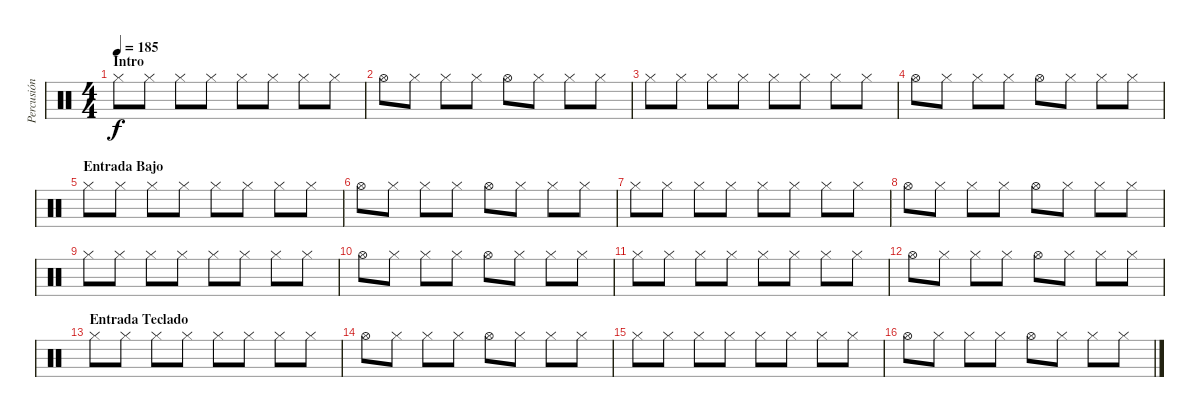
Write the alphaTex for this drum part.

\track ("Percusión" "Percusión") {instrument percussion}
\staff {score}
\articulation defaults
\ts (4 4)
\section ("" "Intro")
\tempo 185
\clef neutral
\ks c "Hi-Hat (closed)".8{dy f} "Hi-Hat (closed)".8 "Hi-Hat (closed)".8 "Hi-Hat (closed)".8 "Hi-Hat (closed)".8 "Hi-Hat (closed)".8 "Hi-Hat (closed)".8 "Hi-Hat (closed)".8
|
"Hi-Hat (open)".8 "Hi-Hat (closed)".8 "Hi-Hat (closed)".8 "Hi-Hat (closed)".8 "Hi-Hat (open)".8 "Hi-Hat (closed)".8 "Hi-Hat (closed)".8 "Hi-Hat (closed)".8 |
"Hi-Hat (closed)".8 "Hi-Hat (closed)".8 "Hi-Hat (closed)".8 "Hi-Hat (closed)".8 "Hi-Hat (closed)".8 "Hi-Hat (closed)".8 "Hi-Hat (closed)".8 "Hi-Hat (closed)".8 |
"Hi-Hat (open)".8 "Hi-Hat (closed)".8 "Hi-Hat (closed)".8 "Hi-Hat (closed)".8 "Hi-Hat (open)".8 "Hi-Hat (closed)".8 "Hi-Hat (closed)".8 "Hi-Hat (closed)".8 |
\section ("" "Entrada Bajo")
"Hi-Hat (closed)".8 "Hi-Hat (closed)".8 "Hi-Hat (closed)".8 "Hi-Hat (closed)".8 "Hi-Hat (closed)".8 "Hi-Hat (closed)".8 "Hi-Hat (closed)".8 "Hi-Hat (closed)".8 |
"Hi-Hat (open)".8 "Hi-Hat (closed)".8 "Hi-Hat (closed)".8 "Hi-Hat (closed)".8 "Hi-Hat (open)".8 "Hi-Hat (closed)".8 "Hi-Hat (closed)".8 "Hi-Hat (closed)".8 |
"Hi-Hat (closed)".8 "Hi-Hat (closed)".8 "Hi-Hat (closed)".8 "Hi-Hat (closed)".8 "Hi-Hat (closed)".8 "Hi-Hat (closed)".8 "Hi-Hat (closed)".8 "Hi-Hat (closed)".8 |
"Hi-Hat (open)".8 "Hi-Hat (closed)".8 "Hi-Hat (closed)".8 "Hi-Hat (closed)".8 "Hi-Hat (open)".8 "Hi-Hat (closed)".8 "Hi-Hat (closed)".8 "Hi-Hat (closed)".8 |
"Hi-Hat (closed)".8 "Hi-Hat (closed)".8 "Hi-Hat (closed)".8 "Hi-Hat (closed)".8 "Hi-Hat (closed)".8 "Hi-Hat (closed)".8 "Hi-Hat (closed)".8 "Hi-Hat (closed)".8 |
"Hi-Hat (open)".8 "Hi-Hat (closed)".8 "Hi-Hat (closed)".8 "Hi-Hat (closed)".8 "Hi-Hat (open)".8 "Hi-Hat (closed)".8 "Hi-Hat (closed)".8 "Hi-Hat (closed)".8 |
"Hi-Hat (closed)".8 "Hi-Hat (closed)".8 "Hi-Hat (closed)".8 "Hi-Hat (closed)".8 "Hi-Hat (closed)".8 "Hi-Hat (closed)".8 "Hi-Hat (closed)".8 "Hi-Hat (closed)".8 |
"Hi-Hat (open)".8 "Hi-Hat (closed)".8 "Hi-Hat (closed)".8 "Hi-Hat (closed)".8 "Hi-Hat (open)".8 "Hi-Hat (closed)".8 "Hi-Hat (closed)".8 "Hi-Hat (closed)".8 |
\section ("" "Entrada Teclado")
"Hi-Hat (closed)".8 "Hi-Hat (closed)".8 "Hi-Hat (closed)".8 "Hi-Hat (closed)".8 "Hi-Hat (closed)".8 "Hi-Hat (closed)".8 "Hi-Hat (closed)".8 "Hi-Hat (closed)".8 |
"Hi-Hat (open)".8 "Hi-Hat (closed)".8 "Hi-Hat (closed)".8 "Hi-Hat (closed)".8 "Hi-Hat (open)".8 "Hi-Hat (closed)".8 "Hi-Hat (closed)".8 "Hi-Hat (closed)".8 |
"Hi-Hat (closed)".8 "Hi-Hat (closed)".8 "Hi-Hat (closed)".8 "Hi-Hat (closed)".8 "Hi-Hat (closed)".8 "Hi-Hat (closed)".8 "Hi-Hat (closed)".8 "Hi-Hat (closed)".8 |
"Hi-Hat (open)".8 "Hi-Hat (closed)".8 "Hi-Hat (closed)".8 "Hi-Hat (closed)".8 "Hi-Hat (open)".8 "Hi-Hat (closed)".8 "Hi-Hat (closed)".8 "Hi-Hat (closed)".8
